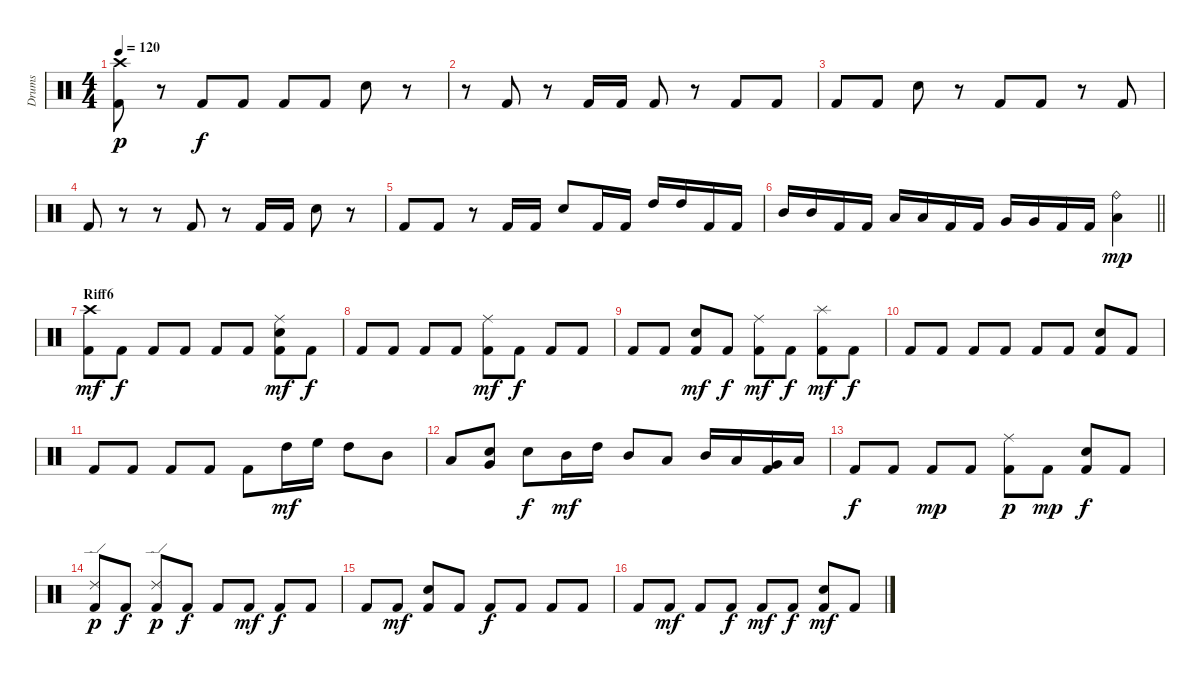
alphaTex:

\track ("Drums" "Drums") {instrument percussion}
\staff {score}
\articulation defaults
\ts (4 4)
\tempo 120
\clef neutral
\ks c
("Kick (hit) 2" "Crash high (hit)").8{dy p} r.8 "Kick (hit) 2".8{dy f} "Kick (hit) 2".8 "Kick (hit) 2".8 "Kick (hit) 2".8 "Snare (hit) 2".8 r.8 |
r.8 "Kick (hit) 2".8 r.8 "Kick (hit) 2".16 "Kick (hit) 2".16 "Kick (hit) 2".8 r.8 "Kick (hit) 2".8 "Kick (hit) 2".8 |
"Kick (hit) 2".8 "Kick (hit) 2".8 "Snare (hit) 2".8 r.8 "Kick (hit) 2".8 "Kick (hit) 2".8 r.8 "Kick (hit) 2".8 |
"Kick (hit) 2".8 r.8 r.8 "Kick (hit) 2".8 r.8 "Kick (hit) 2".16 "Kick (hit) 2".16 "Snare (hit) 2".8 r.8 |
"Kick (hit) 2".8 "Kick (hit) 2".8 r.8 "Kick (hit) 2".16 "Kick (hit) 2".16 "Snare (hit) 2".8 "Kick (hit) 2".16 "Kick (hit) 2".16 "High Tom (hit)".16 "High Tom (hit)".16 "Kick (hit) 2".16 "Kick (hit) 2".16 |
\barLineRight lightlight "Mid Tom (hit)".16 "Mid Tom (hit)".16 "Kick (hit) 2".16 "Kick (hit) 2".16 "Low Tom (hit)".16 "Low Tom (hit)".16 "Kick (hit) 2".16 "Kick (hit) 2".16 "Very Low Tom (hit)".16 "Very Low Tom (hit)".16 "Kick (hit) 2".16 "Kick (hit) 2".16
("Ride (bell)" "Low Floor Tom (hit)").4{dy mp} |
\section ("" "Riff6")
("Kick (hit) 2" "Crash high (hit)").8{dy mf} "Kick (hit) 2".8{dy f} "Kick (hit) 2".8 "Kick (hit) 2".8 "Kick (hit) 2".8 "Kick (hit) 2".8 ("Kick (hit) 2" "Ride (middle)" "Snare (hit) 2").8{dy mf} "Kick (hit) 2".8{dy f} |
"Kick (hit) 2".8 "Kick (hit) 2".8 "Kick (hit) 2".8 "Kick (hit) 2".8 ("Kick (hit) 2" "Ride (middle)").8{dy mf} "Kick (hit) 2".8{dy f} "Kick (hit) 2".8 "Kick (hit) 2".8 |
"Kick (hit) 2".8 "Kick (hit) 2".8 ("Kick (hit) 2" "Snare (hit) 2").8{dy mf} "Kick (hit) 2".8{dy f} ("Kick (hit) 2" "Ride (middle)").8{dy mf} "Kick (hit) 2".8{dy f} ("Kick (hit) 2" "Splash (hit)").8{dy mf} "Kick (hit) 2".8{dy f} |
"Kick (hit) 2".8 "Kick (hit) 2".8 "Kick (hit) 2".8 "Kick (hit) 2".8 "Kick (hit) 2".8 "Kick (hit) 2".8 ("Kick (hit) 2" "Snare (hit) 2").8 "Kick (hit) 2".8 |
"Kick (hit) 2".8 "Kick (hit) 2".8 "Kick (hit) 2".8 "Kick (hit) 2".8 "Kick (hit) 2".8 "High Tom (hit)".16{dy mf} "High Floor Tom (hit)".16 "High Tom (hit)".8 "Mid Tom (hit)".8 |
"Low Tom (hit)".8 ("Snare (hit) 2" "Very Low Tom (hit)").8 "Snare (hit) 2".8{dy f} "Mid Tom (hit)".16{dy mf} "High Tom (hit)".16 "Mid Tom (hit)".8 "Low Tom (hit)".8 "Mid Tom (hit)".16 "Low Tom (hit)".16 ("Kick (hit) 2" "Very Low Tom (hit)").16 "Low Floor Tom (hit)".16 |
"Kick (hit) 2".8{dy f} "Kick (hit) 2".8 "Kick (hit) 2".8{dy mp} "Kick (hit) 2".8 ("Kick (hit) 2" "Ride (middle)").8{dy p} "Kick (hit) 2".8{dy mp} ("Kick (hit) 2" "Snare (hit) 2").8{dy f} "Kick (hit) 2".8 |
("Kick (hit) 2" "Ride (edge) 2").8{dy p} "Kick (hit) 2".8{dy f} ("Kick (hit) 2" "Ride (edge) 2").8{dy p} "Kick (hit) 2".8{dy f} "Kick (hit) 2".8 "Kick (hit) 2".8{dy mf} "Kick (hit) 2".8{dy f} "Kick (hit) 2".8 |
"Kick (hit) 2".8 "Kick (hit) 2".8{dy mf} ("Kick (hit) 2" "Snare (hit) 2").8 "Kick (hit) 2".8 "Kick (hit) 2".8{dy f} "Kick (hit) 2".8 "Kick (hit) 2".8 "Kick (hit) 2".8 |
"Kick (hit) 2".8 "Kick (hit) 2".8{dy mf} "Kick (hit) 2".8 "Kick (hit) 2".8{dy f} "Kick (hit) 2".8{dy mf} "Kick (hit) 2".8{dy f} ("Kick (hit) 2" "Snare (hit) 2").8{dy mf} "Kick (hit) 2".8
